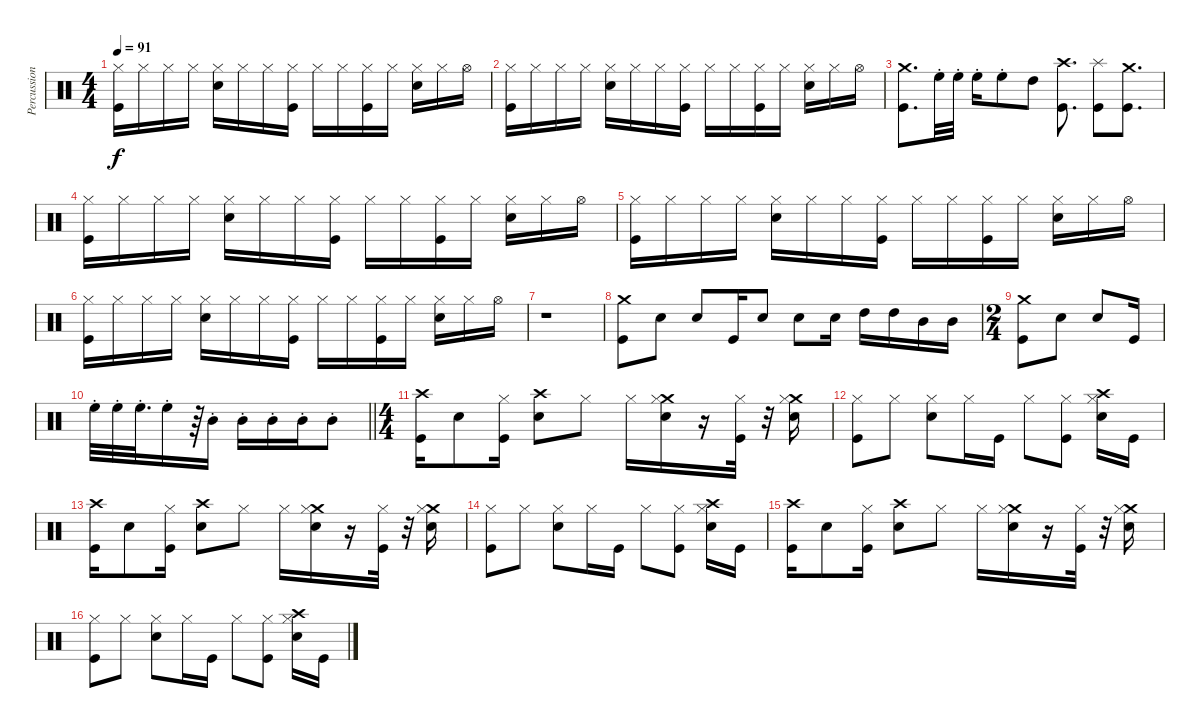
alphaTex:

\track ("Percussion" "Percussion") {instrument percussion}
\staff {score}
\articulation defaults
\ts (4 4)
\tempo 91
\clef neutral
\ks c
("Hi-Hat (closed)" "Kick (hit)").16{dy f} "Hi-Hat (closed)".16 "Hi-Hat (closed)".16 "Hi-Hat (closed)".16 ("Hi-Hat (closed)" "Snare (hit) 2").16 "Hi-Hat (closed)".16 "Hi-Hat (closed)".16 ("Hi-Hat (closed)" "Kick (hit)").16 "Hi-Hat (closed)".16 "Hi-Hat (closed)".16 ("Hi-Hat (closed)" "Kick (hit)").16 "Hi-Hat (closed)".16 ("Hi-Hat (closed)" "Snare (hit) 2").16 "Hi-Hat (closed)".16 "Hi-Hat (open)".16 |
("Hi-Hat (closed)" "Kick (hit)").16 "Hi-Hat (closed)".16 "Hi-Hat (closed)".16 "Hi-Hat (closed)".16 ("Hi-Hat (closed)" "Snare (hit) 2").16 "Hi-Hat (closed)".16 "Hi-Hat (closed)".16 ("Hi-Hat (closed)" "Kick (hit)").16 "Hi-Hat (closed)".16 "Hi-Hat (closed)".16 ("Hi-Hat (closed)" "Kick (hit)").16 "Hi-Hat (closed)".16 ("Hi-Hat (closed)" "Snare (hit) 2").16 "Hi-Hat (closed)".16 "Hi-Hat (open)".16 |
("Crash medium (hit)" "Kick (hit)").8{d} "High Floor Tom (hit)"{st}.32 "High Floor Tom (hit)"{st}.32 "High Floor Tom (hit)"{st}.16 "High Floor Tom (hit)"{st}.8 "High Tom (hit)".8 ("Crash high (hit)" "Kick (hit)").8{d} ("Splash (hit)" "Kick (hit)").8 ("Crash medium (hit)" "Kick (hit)").8{d} |
("Hi-Hat (closed)" "Kick (hit)").16 "Hi-Hat (closed)".16 "Hi-Hat (closed)".16 "Hi-Hat (closed)".16 ("Hi-Hat (closed)" "Snare (hit) 2").16 "Hi-Hat (closed)".16 "Hi-Hat (closed)".16 ("Hi-Hat (closed)" "Kick (hit)").16 "Hi-Hat (closed)".16 "Hi-Hat (closed)".16 ("Hi-Hat (closed)" "Kick (hit)").16 "Hi-Hat (closed)".16 ("Hi-Hat (closed)" "Snare (hit) 2").16 "Hi-Hat (closed)".16 "Hi-Hat (open)".16 |
("Hi-Hat (closed)" "Kick (hit)").16 "Hi-Hat (closed)".16 "Hi-Hat (closed)".16 "Hi-Hat (closed)".16 ("Hi-Hat (closed)" "Snare (hit) 2").16 "Hi-Hat (closed)".16 "Hi-Hat (closed)".16 ("Hi-Hat (closed)" "Kick (hit)").16 "Hi-Hat (closed)".16 "Hi-Hat (closed)".16 ("Hi-Hat (closed)" "Kick (hit)").16 "Hi-Hat (closed)".16 ("Hi-Hat (closed)" "Snare (hit) 2").16 "Hi-Hat (closed)".16 "Hi-Hat (open)".16 |
("Hi-Hat (closed)" "Kick (hit)").16 "Hi-Hat (closed)".16 "Hi-Hat (closed)".16 "Hi-Hat (closed)".16 ("Hi-Hat (closed)" "Snare (hit) 2").16 "Hi-Hat (closed)".16 "Hi-Hat (closed)".16 ("Hi-Hat (closed)" "Kick (hit)").16 "Hi-Hat (closed)".16 "Hi-Hat (closed)".16 ("Hi-Hat (closed)" "Kick (hit)").16 "Hi-Hat (closed)".16 ("Hi-Hat (closed)" "Snare (hit) 2").16 "Hi-Hat (closed)".16 "Hi-Hat (open)".16 |
r.1 |
("Crash medium (hit)" "Kick (hit)").8 "Snare (hit) 2".8 "Snare (hit) 2".8 "Kick (hit)".16 "Snare (hit) 2".8 "Snare (hit) 2".8 "Snare (hit) 2".16 "High Tom (hit)".16 "High Tom (hit)".16 "Mid Tom (hit)".16 "Mid Tom (hit)".16 |
\ts (2 4)
("Crash medium (hit)" "Kick (hit)").8 "Snare (hit) 2".8 "Snare (hit) 2".8 "Kick (hit)".16 |
\barLineRight lightlight "High Floor Tom (hit)"{st}.32 "High Floor Tom (hit)"{st}.32 "High Floor Tom (hit)"{st}.32{d} "High Floor Tom (hit)"{st}.16
r.64 "Mid Tom (hit)"{st}.16 "Mid Tom (hit)"{st}.16 "Mid Tom (hit)"{st}.16 "Mid Tom (hit)"{st}.16 "Mid Tom (hit)"{st}.8 |
\ts (4 4)
("Crash high (hit)" "Kick (hit)").16 "Snare (hit) 2".8 ("Hi-Hat (closed)" "Kick (hit)").16 ("Crash high (hit)" "Snare (hit) 2").8 "Hi-Hat (closed)".8 "Hi-Hat (closed)".16 ("Crash medium (hit)" "Hi-Hat (closed)" "Snare (hit) 2").16 r.16 ("Hi-Hat (closed)" "Kick (hit)").32 r.32 ("Crash medium (hit)" "Hi-Hat (closed)" "Snare (hit) 2").16 |
("Hi-Hat (closed)" "Kick (hit)").8 "Hi-Hat (closed)".8 ("Hi-Hat (closed)" "Snare (hit) 2").8 "Hi-Hat (closed)".16 "Kick (hit)".16 "Hi-Hat (closed)".8 ("Hi-Hat (closed)" "Kick (hit)").8 ("Crash high (hit)" "Hi-Hat (closed)" "Snare (hit) 2").16 "Kick (hit)".16 |
("Crash high (hit)" "Kick (hit)").16 "Snare (hit) 2".8 ("Hi-Hat (closed)" "Kick (hit)").16 ("Crash high (hit)" "Snare (hit) 2").8 "Hi-Hat (closed)".8 "Hi-Hat (closed)".16 ("Crash medium (hit)" "Hi-Hat (closed)" "Snare (hit) 2").16 r.16 ("Hi-Hat (closed)" "Kick (hit)").32 r.32 ("Crash medium (hit)" "Hi-Hat (closed)" "Snare (hit) 2").16 |
("Hi-Hat (closed)" "Kick (hit)").8 "Hi-Hat (closed)".8 ("Hi-Hat (closed)" "Snare (hit) 2").8 "Hi-Hat (closed)".16 "Kick (hit)".16 "Hi-Hat (closed)".8 ("Hi-Hat (closed)" "Kick (hit)").8 ("Crash high (hit)" "Hi-Hat (closed)" "Snare (hit) 2").16 "Kick (hit)".16 |
("Crash high (hit)" "Kick (hit)").16 "Snare (hit) 2".8 ("Hi-Hat (closed)" "Kick (hit)").16 ("Crash high (hit)" "Snare (hit) 2").8 "Hi-Hat (closed)".8 "Hi-Hat (closed)".16 ("Crash medium (hit)" "Hi-Hat (closed)" "Snare (hit) 2").16 r.16 ("Hi-Hat (closed)" "Kick (hit)").32 r.32 ("Crash medium (hit)" "Hi-Hat (closed)" "Snare (hit) 2").16 |
("Hi-Hat (closed)" "Kick (hit)").8 "Hi-Hat (closed)".8 ("Hi-Hat (closed)" "Snare (hit) 2").8 "Hi-Hat (closed)".16 "Kick (hit)".16 "Hi-Hat (closed)".8 ("Hi-Hat (closed)" "Kick (hit)").8 ("Crash high (hit)" "Hi-Hat (closed)" "Snare (hit) 2").16 "Kick (hit)".16
